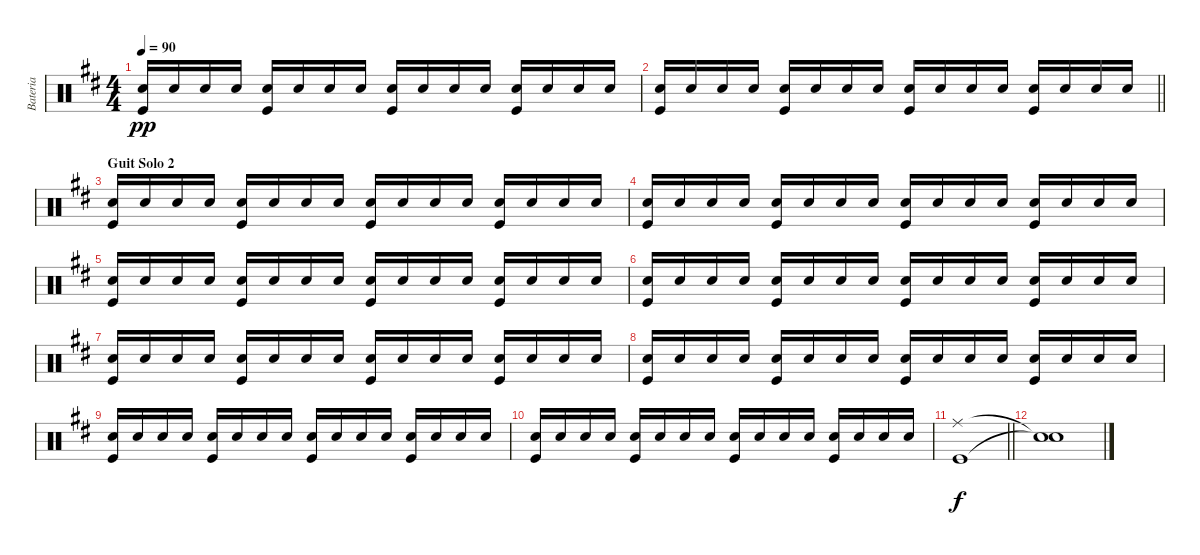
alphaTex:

\track ("Bateria" "Bateria") {instrument percussion}
\staff {score}
\articulation defaults
\ts (4 4)
\tempo 90
\clef neutral
\ks d
("Snare (hit) 2" "Kick (hit)").16{dy pp} "Snare (hit) 2".16 "Snare (hit) 2".16 "Snare (hit) 2".16 ("Snare (hit) 2" "Kick (hit)").16 "Snare (hit) 2".16 "Snare (hit) 2".16 "Snare (hit) 2".16 ("Snare (hit) 2" "Kick (hit)").16 "Snare (hit) 2".16 "Snare (hit) 2".16 "Snare (hit) 2".16 ("Snare (hit) 2" "Kick (hit)").16 "Snare (hit) 2".16 "Snare (hit) 2".16 "Snare (hit) 2".16 |
\barLineRight lightlight
("Snare (hit) 2" "Kick (hit)").16 "Snare (hit) 2".16 "Snare (hit) 2".16 "Snare (hit) 2".16 ("Snare (hit) 2" "Kick (hit)").16 "Snare (hit) 2".16 "Snare (hit) 2".16 "Snare (hit) 2".16 ("Snare (hit) 2" "Kick (hit)").16 "Snare (hit) 2".16 "Snare (hit) 2".16 "Snare (hit) 2".16 ("Snare (hit) 2" "Kick (hit)").16 "Snare (hit) 2".16 "Snare (hit) 2".16 "Snare (hit) 2".16 |
\section ("" "Guit Solo 2")
("Snare (hit) 2" "Kick (hit)").16 "Snare (hit) 2".16 "Snare (hit) 2".16 "Snare (hit) 2".16 ("Snare (hit) 2" "Kick (hit)").16 "Snare (hit) 2".16 "Snare (hit) 2".16 "Snare (hit) 2".16 ("Snare (hit) 2" "Kick (hit)").16 "Snare (hit) 2".16 "Snare (hit) 2".16 "Snare (hit) 2".16 ("Snare (hit) 2" "Kick (hit)").16 "Snare (hit) 2".16 "Snare (hit) 2".16 "Snare (hit) 2".16 |
("Snare (hit) 2" "Kick (hit)").16 "Snare (hit) 2".16 "Snare (hit) 2".16 "Snare (hit) 2".16 ("Snare (hit) 2" "Kick (hit)").16 "Snare (hit) 2".16 "Snare (hit) 2".16 "Snare (hit) 2".16 ("Snare (hit) 2" "Kick (hit)").16 "Snare (hit) 2".16 "Snare (hit) 2".16 "Snare (hit) 2".16 ("Snare (hit) 2" "Kick (hit)").16 "Snare (hit) 2".16 "Snare (hit) 2".16 "Snare (hit) 2".16 |
("Snare (hit) 2" "Kick (hit)").16 "Snare (hit) 2".16 "Snare (hit) 2".16 "Snare (hit) 2".16 ("Snare (hit) 2" "Kick (hit)").16 "Snare (hit) 2".16 "Snare (hit) 2".16 "Snare (hit) 2".16 ("Snare (hit) 2" "Kick (hit)").16 "Snare (hit) 2".16 "Snare (hit) 2".16 "Snare (hit) 2".16 ("Snare (hit) 2" "Kick (hit)").16 "Snare (hit) 2".16 "Snare (hit) 2".16 "Snare (hit) 2".16 |
("Snare (hit) 2" "Kick (hit)").16 "Snare (hit) 2".16 "Snare (hit) 2".16 "Snare (hit) 2".16 ("Snare (hit) 2" "Kick (hit)").16 "Snare (hit) 2".16 "Snare (hit) 2".16 "Snare (hit) 2".16 ("Snare (hit) 2" "Kick (hit)").16 "Snare (hit) 2".16 "Snare (hit) 2".16 "Snare (hit) 2".16 ("Snare (hit) 2" "Kick (hit)").16 "Snare (hit) 2".16 "Snare (hit) 2".16 "Snare (hit) 2".16 |
("Snare (hit) 2" "Kick (hit)").16 "Snare (hit) 2".16 "Snare (hit) 2".16 "Snare (hit) 2".16 ("Snare (hit) 2" "Kick (hit)").16 "Snare (hit) 2".16 "Snare (hit) 2".16 "Snare (hit) 2".16 ("Snare (hit) 2" "Kick (hit)").16 "Snare (hit) 2".16 "Snare (hit) 2".16 "Snare (hit) 2".16 ("Snare (hit) 2" "Kick (hit)").16 "Snare (hit) 2".16 "Snare (hit) 2".16 "Snare (hit) 2".16 |
("Snare (hit) 2" "Kick (hit)").16 "Snare (hit) 2".16 "Snare (hit) 2".16 "Snare (hit) 2".16 ("Snare (hit) 2" "Kick (hit)").16 "Snare (hit) 2".16 "Snare (hit) 2".16 "Snare (hit) 2".16 ("Snare (hit) 2" "Kick (hit)").16 "Snare (hit) 2".16 "Snare (hit) 2".16 "Snare (hit) 2".16 ("Snare (hit) 2" "Kick (hit)").16 "Snare (hit) 2".16 "Snare (hit) 2".16 "Snare (hit) 2".16 |
("Snare (hit) 2" "Kick (hit)").16 "Snare (hit) 2".16 "Snare (hit) 2".16 "Snare (hit) 2".16 ("Snare (hit) 2" "Kick (hit)").16 "Snare (hit) 2".16 "Snare (hit) 2".16 "Snare (hit) 2".16 ("Snare (hit) 2" "Kick (hit)").16 "Snare (hit) 2".16 "Snare (hit) 2".16 "Snare (hit) 2".16 ("Snare (hit) 2" "Kick (hit)").16 "Snare (hit) 2".16 "Snare (hit) 2".16 "Snare (hit) 2".16 |
("Snare (hit) 2" "Kick (hit)").16 "Snare (hit) 2".16 "Snare (hit) 2".16 "Snare (hit) 2".16 ("Snare (hit) 2" "Kick (hit)").16 "Snare (hit) 2".16 "Snare (hit) 2".16 "Snare (hit) 2".16 ("Snare (hit) 2" "Kick (hit)").16 "Snare (hit) 2".16 "Snare (hit) 2".16 "Snare (hit) 2".16 ("Snare (hit) 2" "Kick (hit)").16 "Snare (hit) 2".16 "Snare (hit) 2".16 "Snare (hit) 2".16 |
\barLineRight lightlight
("Ride (middle)" "Kick (hit)").1{dy f} |
("Snare (hit)"{t} "Snare (hit)"{t}).1
